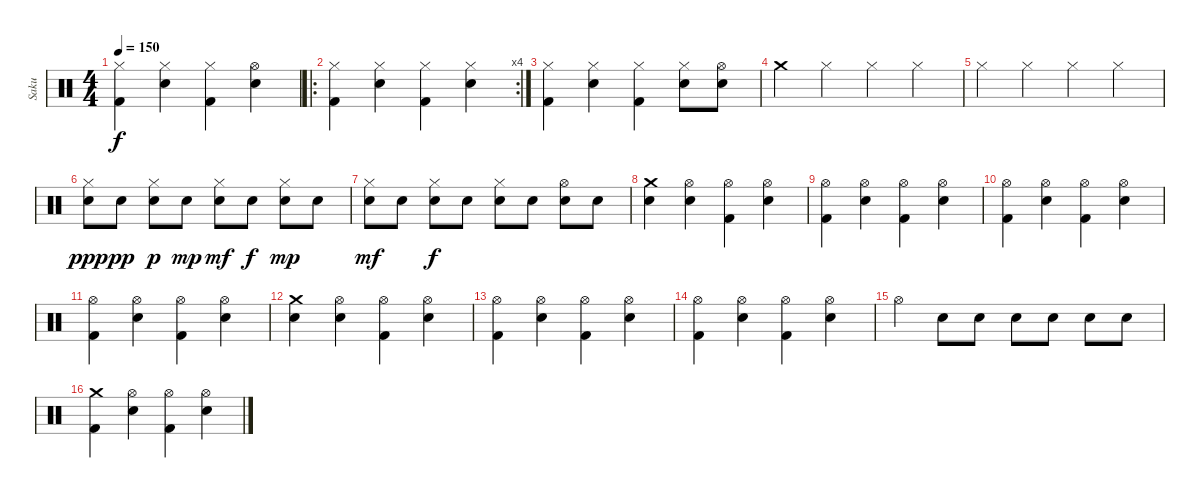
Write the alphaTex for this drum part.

\track ("Saku" "Saku") {instrument percussion}
\staff {score}
\articulation defaults
\ts (4 4)
\tempo 150
\clef neutral
\ks c
("Hi-Hat (closed)" "Kick (hit) 2").4{dy f} ("Hi-Hat (closed)" "Electric Snare (hit)").4 ("Hi-Hat (closed)" "Kick (hit) 2").4 ("Hi-Hat (open)" "Electric Snare (hit)").4 |
\ro
\rc 4
("Hi-Hat (closed)" "Kick (hit) 2").4 ("Hi-Hat (closed)" "Electric Snare (hit)").4 ("Hi-Hat (closed)" "Kick (hit) 2").4 ("Hi-Hat (closed)" "Electric Snare (hit)").4 |
("Hi-Hat (closed)" "Kick (hit) 2").4 ("Hi-Hat (closed)" "Electric Snare (hit)").4 ("Hi-Hat (closed)" "Kick (hit) 2").4 ("Hi-Hat (closed)" "Electric Snare (hit)").8 ("Hi-Hat (open)" "Electric Snare (hit)").8 |
"Crash medium (hit)".4 "Hi-Hat (closed)".4 "Hi-Hat (closed)".4 "Hi-Hat (closed)".4 |
"Hi-Hat (closed)".4 "Hi-Hat (closed)".4 "Hi-Hat (closed)".4 "Hi-Hat (closed)".4 |
("Hi-Hat (closed)" "Electric Snare (hit)").8{dy ppp} "Electric Snare (hit)".8{dy pp} ("Hi-Hat (closed)" "Electric Snare (hit)").8{dy p} "Electric Snare (hit)".8{dy mp} ("Hi-Hat (closed)" "Electric Snare (hit)").8{dy mf} "Electric Snare (hit)".8{dy f} ("Hi-Hat (closed)" "Electric Snare (hit)").8{dy mp} "Electric Snare (hit)".8 |
("Hi-Hat (closed)" "Electric Snare (hit)").8{dy mf} "Electric Snare (hit)".8 ("Hi-Hat (closed)" "Electric Snare (hit)").8{dy f} "Electric Snare (hit)".8 ("Hi-Hat (closed)" "Electric Snare (hit)").8 "Electric Snare (hit)".8 ("Hi-Hat (open)" "Electric Snare (hit)").8 "Electric Snare (hit)".8 |
("Crash medium (hit)" "Electric Snare (hit)").4 ("Hi-Hat (open)" "Electric Snare (hit)").4 ("Hi-Hat (open)" "Kick (hit) 2").4 ("Hi-Hat (open)" "Electric Snare (hit)").4 |
("Hi-Hat (open)" "Kick (hit) 2").4 ("Hi-Hat (open)" "Electric Snare (hit)").4 ("Hi-Hat (open)" "Kick (hit) 2").4 ("Hi-Hat (open)" "Electric Snare (hit)").4 |
("Hi-Hat (open)" "Kick (hit) 2").4 ("Hi-Hat (open)" "Electric Snare (hit)").4 ("Hi-Hat (open)" "Kick (hit) 2").4 ("Hi-Hat (open)" "Electric Snare (hit)").4 |
("Hi-Hat (open)" "Kick (hit) 2").4 ("Hi-Hat (open)" "Electric Snare (hit)").4 ("Hi-Hat (open)" "Kick (hit) 2").4 ("Hi-Hat (open)" "Electric Snare (hit)").4 |
("Crash medium (hit)" "Electric Snare (hit)").4 ("Hi-Hat (open)" "Electric Snare (hit)").4 ("Hi-Hat (open)" "Kick (hit) 2").4 ("Hi-Hat (open)" "Electric Snare (hit)").4 |
("Hi-Hat (open)" "Kick (hit) 2").4 ("Hi-Hat (open)" "Electric Snare (hit)").4 ("Hi-Hat (open)" "Kick (hit) 2").4 ("Hi-Hat (open)" "Electric Snare (hit)").4 |
("Hi-Hat (open)" "Kick (hit) 2").4 ("Hi-Hat (open)" "Electric Snare (hit)").4 ("Hi-Hat (open)" "Kick (hit) 2").4 ("Hi-Hat (open)" "Electric Snare (hit)").4 |
"Hi-Hat (open)".4 "Electric Snare (hit)".8 "Electric Snare (hit)".8 "Electric Snare (hit)".8 "Electric Snare (hit)".8 "Electric Snare (hit)".8 "Electric Snare (hit)".8 |
("Crash medium (hit)" "Kick (hit) 2").4 ("Hi-Hat (open)" "Electric Snare (hit)").4 ("Hi-Hat (open)" "Kick (hit) 2").4 ("Hi-Hat (open)" "Electric Snare (hit)").4
